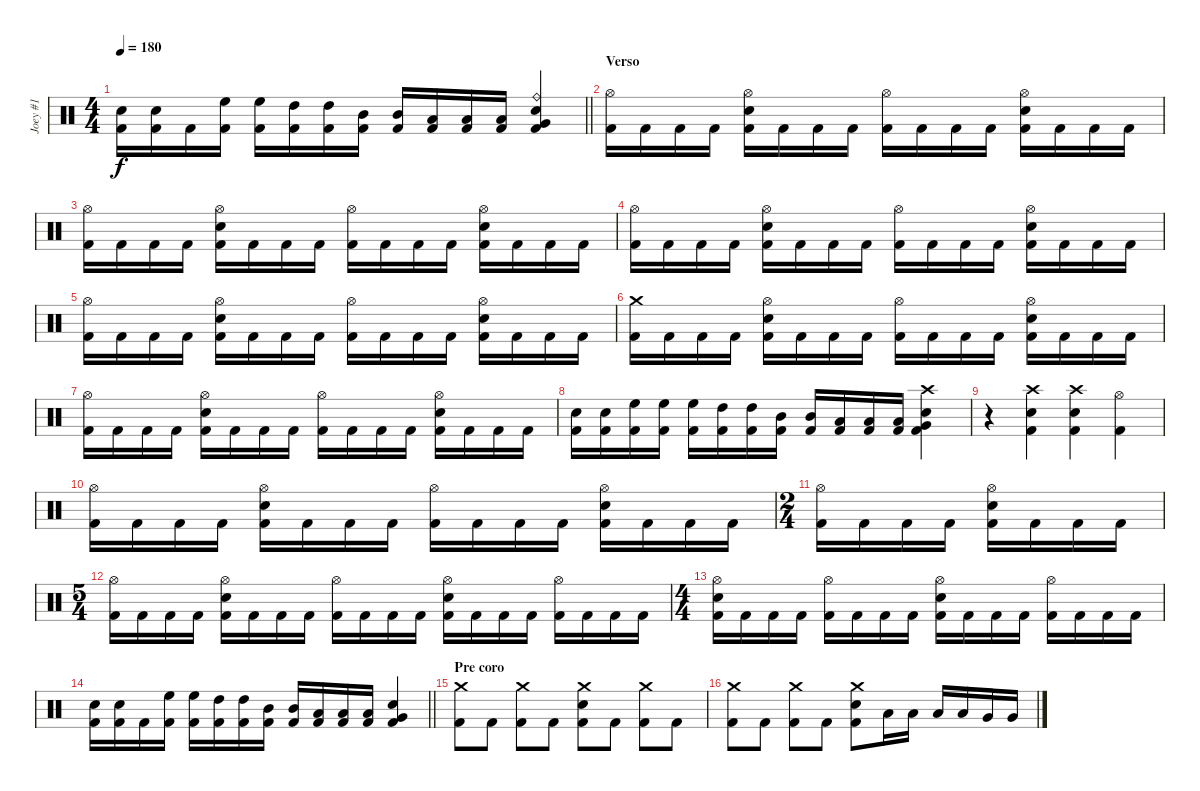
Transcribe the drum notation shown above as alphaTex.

\track ("Joey #1" "Joey #1") {instrument percussion}
\staff {score}
\articulation defaults
\ts (4 4)
\tempo 180
\clef neutral
\barLineRight lightlight
\ks c
("Electric Snare (hit)" "Kick (hit) 2").16{dy f} ("Electric Snare (hit)" "Kick (hit) 2").16 "Kick (hit) 2".16 ("High Floor Tom (hit)" "Kick (hit) 2").16 ("High Floor Tom (hit)" "Kick (hit) 2").16 ("High Tom (hit)" "Kick (hit) 2").16 ("High Tom (hit)" "Kick (hit) 2").16 ("Mid Tom (hit)" "Kick (hit) 2").16 ("Mid Tom (hit)" "Kick (hit) 2").16 ("Low Tom (hit)" "Kick (hit) 2").16 ("Low Tom (hit)" "Kick (hit) 2").16 ("Low Tom (hit)" "Kick (hit) 2").16 ("Ride (bell)" "Very Low Tom (hit)" "Electric Snare (hit)" "Kick (hit) 2").4 |
\section ("" "Verso")
("Hi-Hat (open)" "Kick (hit) 2").16 "Kick (hit) 2".16 "Kick (hit) 2".16 "Kick (hit) 2".16 ("Hi-Hat (open)" "Electric Snare (hit)" "Kick (hit) 2").16 "Kick (hit) 2".16 "Kick (hit) 2".16 "Kick (hit) 2".16 ("Hi-Hat (open)" "Kick (hit) 2").16 "Kick (hit) 2".16 "Kick (hit) 2".16 "Kick (hit) 2".16 ("Hi-Hat (open)" "Electric Snare (hit)" "Kick (hit) 2").16 "Kick (hit) 2".16 "Kick (hit) 2".16 "Kick (hit) 2".16 |
("Hi-Hat (open)" "Kick (hit) 2").16 "Kick (hit) 2".16 "Kick (hit) 2".16 "Kick (hit) 2".16 ("Hi-Hat (open)" "Electric Snare (hit)" "Kick (hit) 2").16 "Kick (hit) 2".16 "Kick (hit) 2".16 "Kick (hit) 2".16 ("Hi-Hat (open)" "Kick (hit) 2").16 "Kick (hit) 2".16 "Kick (hit) 2".16 "Kick (hit) 2".16 ("Hi-Hat (open)" "Electric Snare (hit)" "Kick (hit) 2").16 "Kick (hit) 2".16 "Kick (hit) 2".16 "Kick (hit) 2".16 |
("Hi-Hat (open)" "Kick (hit) 2").16 "Kick (hit) 2".16 "Kick (hit) 2".16 "Kick (hit) 2".16 ("Hi-Hat (open)" "Electric Snare (hit)" "Kick (hit) 2").16 "Kick (hit) 2".16 "Kick (hit) 2".16 "Kick (hit) 2".16 ("Hi-Hat (open)" "Kick (hit) 2").16 "Kick (hit) 2".16 "Kick (hit) 2".16 "Kick (hit) 2".16 ("Hi-Hat (open)" "Electric Snare (hit)" "Kick (hit) 2").16 "Kick (hit) 2".16 "Kick (hit) 2".16 "Kick (hit) 2".16 |
("Hi-Hat (open)" "Kick (hit) 2").16 "Kick (hit) 2".16 "Kick (hit) 2".16 "Kick (hit) 2".16 ("Hi-Hat (open)" "Electric Snare (hit)" "Kick (hit) 2").16 "Kick (hit) 2".16 "Kick (hit) 2".16 "Kick (hit) 2".16 ("Hi-Hat (open)" "Kick (hit) 2").16 "Kick (hit) 2".16 "Kick (hit) 2".16 "Kick (hit) 2".16 ("Hi-Hat (open)" "Electric Snare (hit)" "Kick (hit) 2").16 "Kick (hit) 2".16 "Kick (hit) 2".16 "Kick (hit) 2".16 |
("Crash medium (hit)" "Kick (hit) 2").16 "Kick (hit) 2".16 "Kick (hit) 2".16 "Kick (hit) 2".16 ("Hi-Hat (open)" "Electric Snare (hit)" "Kick (hit) 2").16 "Kick (hit) 2".16 "Kick (hit) 2".16 "Kick (hit) 2".16 ("Hi-Hat (open)" "Kick (hit) 2").16 "Kick (hit) 2".16 "Kick (hit) 2".16 "Kick (hit) 2".16 ("Hi-Hat (open)" "Electric Snare (hit)" "Kick (hit) 2").16 "Kick (hit) 2".16 "Kick (hit) 2".16 "Kick (hit) 2".16 |
("Hi-Hat (open)" "Kick (hit) 2").16 "Kick (hit) 2".16 "Kick (hit) 2".16 "Kick (hit) 2".16 ("Hi-Hat (open)" "Electric Snare (hit)" "Kick (hit) 2").16 "Kick (hit) 2".16 "Kick (hit) 2".16 "Kick (hit) 2".16 ("Hi-Hat (open)" "Kick (hit) 2").16 "Kick (hit) 2".16 "Kick (hit) 2".16 "Kick (hit) 2".16 ("Hi-Hat (open)" "Electric Snare (hit)" "Kick (hit) 2").16 "Kick (hit) 2".16 "Kick (hit) 2".16 "Kick (hit) 2".16 |
("Electric Snare (hit)" "Kick (hit) 2").16 ("Electric Snare (hit)" "Kick (hit) 2").16 ("High Floor Tom (hit)" "Kick (hit) 2").16 ("High Floor Tom (hit)" "Kick (hit) 2").16 ("High Floor Tom (hit)" "Kick (hit) 2").16 ("High Tom (hit)" "Kick (hit) 2").16 ("High Tom (hit)" "Kick (hit) 2").16 ("Mid Tom (hit)" "Kick (hit) 2").16 ("Mid Tom (hit)" "Kick (hit) 2").16 ("Low Tom (hit)" "Kick (hit) 2").16 ("Low Tom (hit)" "Kick (hit) 2").16 ("Low Tom (hit)" "Kick (hit) 2").16 ("Crash high (hit)" "Very Low Tom (hit)" "Electric Snare (hit)" "Kick (hit) 2").4 |
r.4 ("Crash high (hit)" "Electric Snare (hit)" "Kick (hit) 2").4 ("Crash high (hit)" "Electric Snare (hit)" "Kick (hit) 2").4 ("Hi-Hat (open)" "Kick (hit) 2").4 |
("Hi-Hat (open)" "Kick (hit) 2").16 "Kick (hit) 2".16 "Kick (hit) 2".16 "Kick (hit) 2".16 ("Hi-Hat (open)" "Electric Snare (hit)" "Kick (hit) 2").16 "Kick (hit) 2".16 "Kick (hit) 2".16 "Kick (hit) 2".16 ("Hi-Hat (open)" "Kick (hit) 2").16 "Kick (hit) 2".16 "Kick (hit) 2".16 "Kick (hit) 2".16 ("Hi-Hat (open)" "Electric Snare (hit)" "Kick (hit) 2").16 "Kick (hit) 2".16 "Kick (hit) 2".16 "Kick (hit) 2".16 |
\ts (2 4)
("Hi-Hat (open)" "Kick (hit) 2").16 "Kick (hit) 2".16 "Kick (hit) 2".16 "Kick (hit) 2".16 ("Hi-Hat (open)" "Electric Snare (hit)" "Kick (hit) 2").16 "Kick (hit) 2".16 "Kick (hit) 2".16 "Kick (hit) 2".16 |
\ts (5 4)
("Hi-Hat (open)" "Kick (hit) 2").16 "Kick (hit) 2".16 "Kick (hit) 2".16 "Kick (hit) 2".16 ("Hi-Hat (open)" "Electric Snare (hit)" "Kick (hit) 2").16 "Kick (hit) 2".16 "Kick (hit) 2".16 "Kick (hit) 2".16 ("Hi-Hat (open)" "Kick (hit) 2").16 "Kick (hit) 2".16 "Kick (hit) 2".16 "Kick (hit) 2".16 ("Hi-Hat (open)" "Electric Snare (hit)" "Kick (hit) 2").16 "Kick (hit) 2".16 "Kick (hit) 2".16 "Kick (hit) 2".16 ("Hi-Hat (open)" "Kick (hit) 2").16 "Kick (hit) 2".16 "Kick (hit) 2".16 "Kick (hit) 2".16 |
\ts (4 4)
("Hi-Hat (open)" "Electric Snare (hit)" "Kick (hit) 2").16 "Kick (hit) 2".16 "Kick (hit) 2".16 "Kick (hit) 2".16 ("Hi-Hat (open)" "Kick (hit) 2").16 "Kick (hit) 2".16 "Kick (hit) 2".16 "Kick (hit) 2".16 ("Hi-Hat (open)" "Electric Snare (hit)" "Kick (hit) 2").16 "Kick (hit) 2".16 "Kick (hit) 2".16 "Kick (hit) 2".16 ("Hi-Hat (open)" "Kick (hit) 2").16 "Kick (hit) 2".16 "Kick (hit) 2".16 "Kick (hit) 2".16 |
\barLineRight lightlight
("Electric Snare (hit)" "Kick (hit) 2").16 ("Electric Snare (hit)" "Kick (hit) 2").16 "Kick (hit) 2".16 ("High Floor Tom (hit)" "Kick (hit) 2").16 ("High Floor Tom (hit)" "Kick (hit) 2").16 ("High Tom (hit)" "Kick (hit) 2").16 ("High Tom (hit)" "Kick (hit) 2").16 ("Mid Tom (hit)" "Kick (hit) 2").16 ("Mid Tom (hit)" "Kick (hit) 2").16 ("Low Tom (hit)" "Kick (hit) 2").16 ("Low Tom (hit)" "Kick (hit) 2").16 ("Low Tom (hit)" "Kick (hit) 2").16 ("Very Low Tom (hit)" "Electric Snare (hit)" "Kick (hit) 2").4 |
\section ("" "Pre coro")
("Crash medium (hit)" "Kick (hit) 2").8 "Kick (hit) 2".8 ("Crash medium (hit)" "Kick (hit) 2").8 "Kick (hit) 2".8 ("Crash medium (hit)" "Electric Snare (hit)" "Kick (hit) 2").8 "Kick (hit) 2".8 ("Crash medium (hit)" "Kick (hit) 2").8 "Kick (hit) 2".8 |
("Crash medium (hit)" "Kick (hit) 2").8 "Kick (hit) 2".8 ("Crash medium (hit)" "Kick (hit) 2").8 "Kick (hit) 2".8 ("Crash medium (hit)" "Electric Snare (hit)" "Kick (hit) 2").8 "Low Tom (hit)".16 "Low Tom (hit)".16 "Low Tom (hit)".16 "Low Tom (hit)".16 "Very Low Tom (hit)".16 "Very Low Tom (hit)".16
